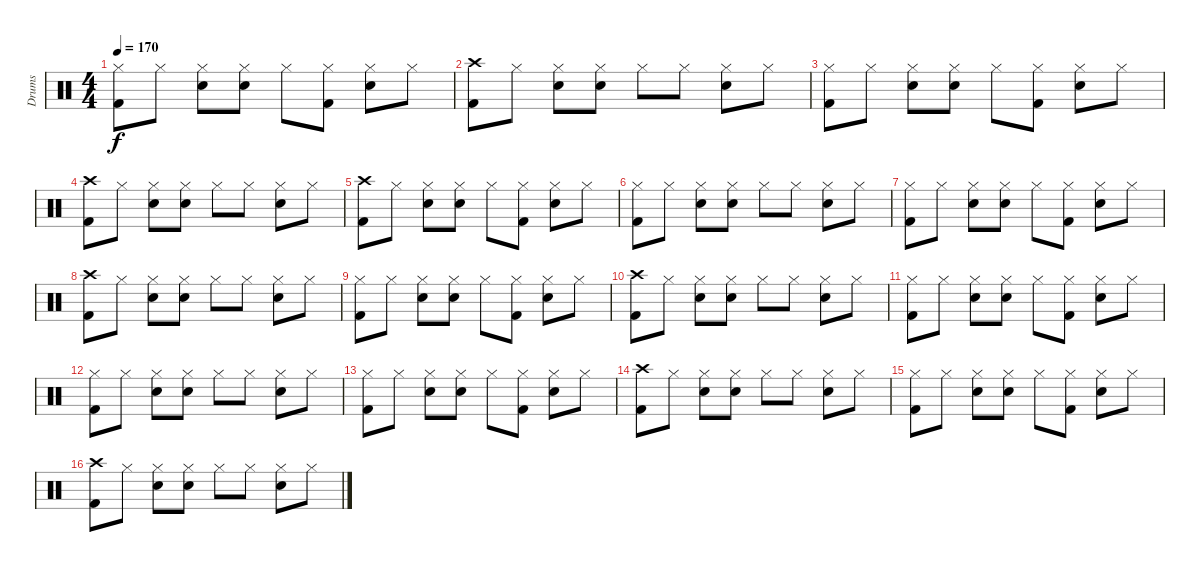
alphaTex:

\track ("Drums" "Drums") {instrument percussion}
\staff {score}
\articulation defaults
\ts (4 4)
\tempo 170
\clef neutral
\ks c
("Hi-Hat (closed)" "Kick (hit) 2").8{dy f} "Hi-Hat (closed)".8 ("Hi-Hat (closed)" "Electric Snare (hit)").8 ("Hi-Hat (closed)" "Electric Snare (hit)").8 "Hi-Hat (closed)".8 ("Hi-Hat (closed)" "Kick (hit) 2").8 ("Hi-Hat (closed)" "Electric Snare (hit)").8 "Hi-Hat (closed)".8 |
("Crash high (hit)" "Kick (hit) 2").8 "Hi-Hat (closed)".8 ("Hi-Hat (closed)" "Electric Snare (hit)").8 ("Hi-Hat (closed)" "Electric Snare (hit)").8 "Hi-Hat (closed)".8 "Hi-Hat (closed)".8 ("Hi-Hat (closed)" "Electric Snare (hit)").8 "Hi-Hat (closed)".8 |
("Hi-Hat (closed)" "Kick (hit) 2").8 "Hi-Hat (closed)".8 ("Hi-Hat (closed)" "Electric Snare (hit)").8 ("Hi-Hat (closed)" "Electric Snare (hit)").8 "Hi-Hat (closed)".8 ("Hi-Hat (closed)" "Kick (hit) 2").8 ("Hi-Hat (closed)" "Electric Snare (hit)").8 "Hi-Hat (closed)".8 |
("Crash high (hit)" "Kick (hit) 2").8 "Hi-Hat (closed)".8 ("Hi-Hat (closed)" "Electric Snare (hit)").8 ("Hi-Hat (closed)" "Electric Snare (hit)").8 "Hi-Hat (closed)".8 "Hi-Hat (closed)".8 ("Hi-Hat (closed)" "Electric Snare (hit)").8 "Hi-Hat (closed)".8 |
("Crash high (hit)" "Kick (hit) 2").8 "Hi-Hat (closed)".8 ("Hi-Hat (closed)" "Electric Snare (hit)").8 ("Hi-Hat (closed)" "Electric Snare (hit)").8 "Hi-Hat (closed)".8 ("Hi-Hat (closed)" "Kick (hit) 2").8 ("Hi-Hat (closed)" "Electric Snare (hit)").8 "Hi-Hat (closed)".8 |
("Hi-Hat (closed)" "Kick (hit) 2").8 "Hi-Hat (closed)".8 ("Hi-Hat (closed)" "Electric Snare (hit)").8 ("Hi-Hat (closed)" "Electric Snare (hit)").8 "Hi-Hat (closed)".8 "Hi-Hat (closed)".8 ("Hi-Hat (closed)" "Electric Snare (hit)").8 "Hi-Hat (closed)".8 |
("Hi-Hat (closed)" "Kick (hit) 2").8 "Hi-Hat (closed)".8 ("Hi-Hat (closed)" "Electric Snare (hit)").8 ("Hi-Hat (closed)" "Electric Snare (hit)").8 "Hi-Hat (closed)".8 ("Hi-Hat (closed)" "Kick (hit) 2").8 ("Hi-Hat (closed)" "Electric Snare (hit)").8 "Hi-Hat (closed)".8 |
("Crash high (hit)" "Kick (hit) 2").8 "Hi-Hat (closed)".8 ("Hi-Hat (closed)" "Electric Snare (hit)").8 ("Hi-Hat (closed)" "Electric Snare (hit)").8 "Hi-Hat (closed)".8 "Hi-Hat (closed)".8 ("Hi-Hat (closed)" "Electric Snare (hit)").8 "Hi-Hat (closed)".8 |
("Hi-Hat (closed)" "Kick (hit) 2").8 "Hi-Hat (closed)".8 ("Hi-Hat (closed)" "Electric Snare (hit)").8 ("Hi-Hat (closed)" "Electric Snare (hit)").8 "Hi-Hat (closed)".8 ("Hi-Hat (closed)" "Kick (hit) 2").8 ("Hi-Hat (closed)" "Electric Snare (hit)").8 "Hi-Hat (closed)".8 |
("Crash high (hit)" "Kick (hit) 2").8 "Hi-Hat (closed)".8 ("Hi-Hat (closed)" "Electric Snare (hit)").8 ("Hi-Hat (closed)" "Electric Snare (hit)").8 "Hi-Hat (closed)".8 "Hi-Hat (closed)".8 ("Hi-Hat (closed)" "Electric Snare (hit)").8 "Hi-Hat (closed)".8 |
("Hi-Hat (closed)" "Kick (hit) 2").8 "Hi-Hat (closed)".8 ("Hi-Hat (closed)" "Electric Snare (hit)").8 ("Hi-Hat (closed)" "Electric Snare (hit)").8 "Hi-Hat (closed)".8 ("Hi-Hat (closed)" "Kick (hit) 2").8 ("Hi-Hat (closed)" "Electric Snare (hit)").8 "Hi-Hat (closed)".8 |
("Hi-Hat (closed)" "Kick (hit) 2").8 "Hi-Hat (closed)".8 ("Hi-Hat (closed)" "Electric Snare (hit)").8 ("Hi-Hat (closed)" "Electric Snare (hit)").8 "Hi-Hat (closed)".8 "Hi-Hat (closed)".8 ("Hi-Hat (closed)" "Electric Snare (hit)").8 "Hi-Hat (closed)".8 |
("Hi-Hat (closed)" "Kick (hit) 2").8 "Hi-Hat (closed)".8 ("Hi-Hat (closed)" "Electric Snare (hit)").8 ("Hi-Hat (closed)" "Electric Snare (hit)").8 "Hi-Hat (closed)".8 ("Hi-Hat (closed)" "Kick (hit) 2").8 ("Hi-Hat (closed)" "Electric Snare (hit)").8 "Hi-Hat (closed)".8 |
("Crash high (hit)" "Kick (hit) 2").8 "Hi-Hat (closed)".8 ("Hi-Hat (closed)" "Electric Snare (hit)").8 ("Hi-Hat (closed)" "Electric Snare (hit)").8 "Hi-Hat (closed)".8 "Hi-Hat (closed)".8 ("Hi-Hat (closed)" "Electric Snare (hit)").8 "Hi-Hat (closed)".8 |
("Hi-Hat (closed)" "Kick (hit) 2").8 "Hi-Hat (closed)".8 ("Hi-Hat (closed)" "Electric Snare (hit)").8 ("Hi-Hat (closed)" "Electric Snare (hit)").8 "Hi-Hat (closed)".8 ("Hi-Hat (closed)" "Kick (hit) 2").8 ("Hi-Hat (closed)" "Electric Snare (hit)").8 "Hi-Hat (closed)".8 |
("Crash high (hit)" "Kick (hit) 2").8 "Hi-Hat (closed)".8 ("Hi-Hat (closed)" "Electric Snare (hit)").8 ("Hi-Hat (closed)" "Electric Snare (hit)").8 "Hi-Hat (closed)".8 "Hi-Hat (closed)".8 ("Hi-Hat (closed)" "Electric Snare (hit)").8 "Hi-Hat (closed)".8
